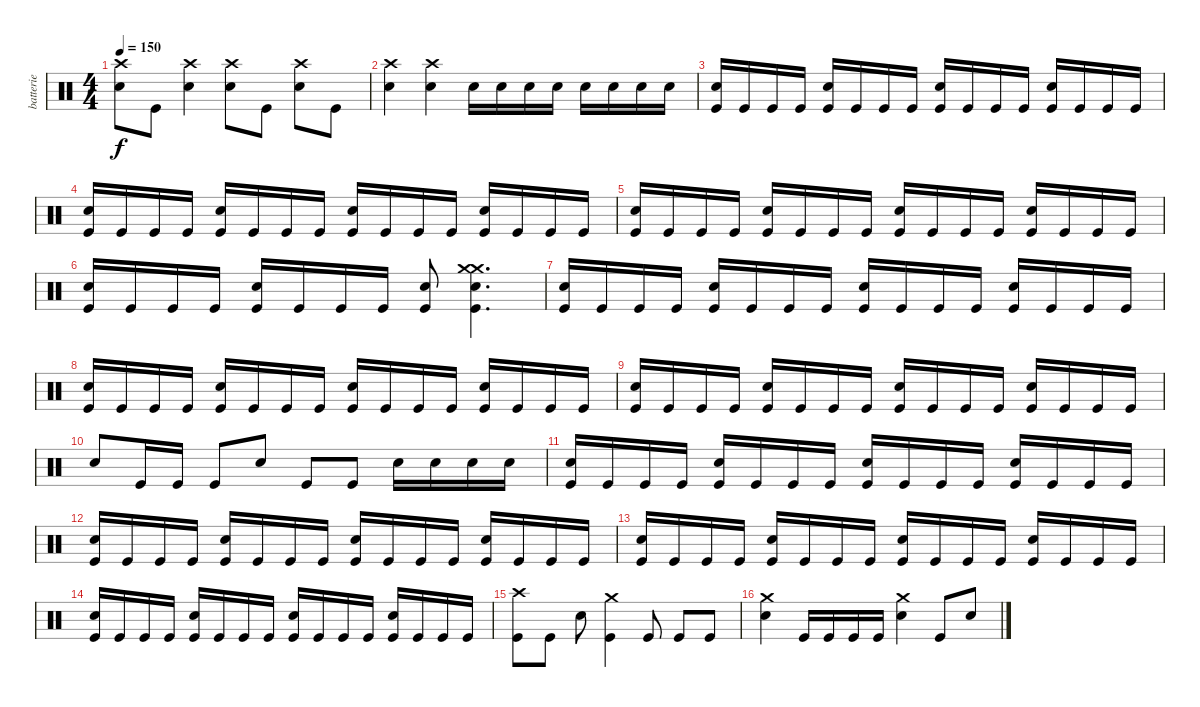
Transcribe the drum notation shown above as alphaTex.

\track ("batterie" "batterie") {instrument percussion}
\staff {score}
\articulation defaults
\ts (4 4)
\tempo 150
\clef neutral
\ks c
("Crash high (hit)" "Snare (hit) 2").8{dy f} "Kick (hit)".8 ("Crash high (hit)" "Snare (hit) 2").4 ("Crash high (hit)" "Snare (hit) 2").8 "Kick (hit)".8 ("Crash high (hit)" "Snare (hit) 2").8 "Kick (hit)".8 |
("Crash high (hit)" "Snare (hit) 2").4 ("Crash high (hit)" "Snare (hit) 2").4 "Snare (hit) 2".16 "Snare (hit) 2".16 "Snare (hit) 2".16 "Snare (hit) 2".16 "Snare (hit) 2".16 "Snare (hit) 2".16 "Snare (hit) 2".16 "Snare (hit) 2".16 |
("Snare (hit) 2" "Kick (hit)").16 "Kick (hit)".16 "Kick (hit)".16 "Kick (hit)".16 ("Snare (hit) 2" "Kick (hit)").16 "Kick (hit)".16 "Kick (hit)".16 "Kick (hit)".16 ("Snare (hit) 2" "Kick (hit)").16 "Kick (hit)".16 "Kick (hit)".16 "Kick (hit)".16 ("Snare (hit) 2" "Kick (hit)").16 "Kick (hit)".16 "Kick (hit)".16 "Kick (hit)".16 |
("Snare (hit) 2" "Kick (hit)").16 "Kick (hit)".16 "Kick (hit)".16 "Kick (hit)".16 ("Snare (hit) 2" "Kick (hit)").16 "Kick (hit)".16 "Kick (hit)".16 "Kick (hit)".16 ("Snare (hit) 2" "Kick (hit)").16 "Kick (hit)".16 "Kick (hit)".16 "Kick (hit)".16 ("Snare (hit) 2" "Kick (hit)").16 "Kick (hit)".16 "Kick (hit)".16 "Kick (hit)".16 |
("Snare (hit) 2" "Kick (hit)").16 "Kick (hit)".16 "Kick (hit)".16 "Kick (hit)".16 ("Snare (hit) 2" "Kick (hit)").16 "Kick (hit)".16 "Kick (hit)".16 "Kick (hit)".16 ("Snare (hit) 2" "Kick (hit)").16 "Kick (hit)".16 "Kick (hit)".16 "Kick (hit)".16 ("Snare (hit) 2" "Kick (hit)").16 "Kick (hit)".16 "Kick (hit)".16 "Kick (hit)".16 |
("Snare (hit) 2" "Kick (hit)").16 "Kick (hit)".16 "Kick (hit)".16 "Kick (hit)".16 ("Snare (hit) 2" "Kick (hit)").16 "Kick (hit)".16 "Kick (hit)".16 "Kick (hit)".16 ("Snare (hit) 2" "Kick (hit)").8 ("Crash medium (hit)" "Crash medium (hit)" "Snare (hit) 2" "Kick (hit)").4{d} |
("Snare (hit) 2" "Kick (hit)").16 "Kick (hit)".16 "Kick (hit)".16 "Kick (hit)".16 ("Snare (hit) 2" "Kick (hit)").16 "Kick (hit)".16 "Kick (hit)".16 "Kick (hit)".16 ("Snare (hit) 2" "Kick (hit)").16 "Kick (hit)".16 "Kick (hit)".16 "Kick (hit)".16 ("Snare (hit) 2" "Kick (hit)").16 "Kick (hit)".16 "Kick (hit)".16 "Kick (hit)".16 |
("Snare (hit) 2" "Kick (hit)").16 "Kick (hit)".16 "Kick (hit)".16 "Kick (hit)".16 ("Snare (hit) 2" "Kick (hit)").16 "Kick (hit)".16 "Kick (hit)".16 "Kick (hit)".16 ("Snare (hit) 2" "Kick (hit)").16 "Kick (hit)".16 "Kick (hit)".16 "Kick (hit)".16 ("Snare (hit) 2" "Kick (hit)").16 "Kick (hit)".16 "Kick (hit)".16 "Kick (hit)".16 |
("Snare (hit) 2" "Kick (hit)").16 "Kick (hit)".16 "Kick (hit)".16 "Kick (hit)".16 ("Snare (hit) 2" "Kick (hit)").16 "Kick (hit)".16 "Kick (hit)".16 "Kick (hit)".16 ("Snare (hit) 2" "Kick (hit)").16 "Kick (hit)".16 "Kick (hit)".16 "Kick (hit)".16 ("Snare (hit) 2" "Kick (hit)").16 "Kick (hit)".16 "Kick (hit)".16 "Kick (hit)".16 |
"Snare (hit) 2".8 "Kick (hit)".16 "Kick (hit)".16 "Kick (hit)".8 "Snare (hit) 2".8 "Kick (hit)".8 "Kick (hit)".8 "Snare (hit) 2".16 "Snare (hit) 2".16 "Snare (hit) 2".16 "Snare (hit) 2".16 |
("Snare (hit) 2" "Kick (hit)").16 "Kick (hit)".16 "Kick (hit)".16 "Kick (hit)".16 ("Snare (hit) 2" "Kick (hit)").16 "Kick (hit)".16 "Kick (hit)".16 "Kick (hit)".16 ("Snare (hit) 2" "Kick (hit)").16 "Kick (hit)".16 "Kick (hit)".16 "Kick (hit)".16 ("Snare (hit) 2" "Kick (hit)").16 "Kick (hit)".16 "Kick (hit)".16 "Kick (hit)".16 |
("Snare (hit) 2" "Kick (hit)").16 "Kick (hit)".16 "Kick (hit)".16 "Kick (hit)".16 ("Snare (hit) 2" "Kick (hit)").16 "Kick (hit)".16 "Kick (hit)".16 "Kick (hit)".16 ("Snare (hit) 2" "Kick (hit)").16 "Kick (hit)".16 "Kick (hit)".16 "Kick (hit)".16 ("Snare (hit) 2" "Kick (hit)").16 "Kick (hit)".16 "Kick (hit)".16 "Kick (hit)".16 |
("Snare (hit) 2" "Kick (hit)").16 "Kick (hit)".16 "Kick (hit)".16 "Kick (hit)".16 ("Snare (hit) 2" "Kick (hit)").16 "Kick (hit)".16 "Kick (hit)".16 "Kick (hit)".16 ("Snare (hit) 2" "Kick (hit)").16 "Kick (hit)".16 "Kick (hit)".16 "Kick (hit)".16 ("Snare (hit) 2" "Kick (hit)").16 "Kick (hit)".16 "Kick (hit)".16 "Kick (hit)".16 |
("Snare (hit) 2" "Kick (hit)").16 "Kick (hit)".16 "Kick (hit)".16 "Kick (hit)".16 ("Snare (hit) 2" "Kick (hit)").16 "Kick (hit)".16 "Kick (hit)".16 "Kick (hit)".16 ("Snare (hit) 2" "Kick (hit)").16 "Kick (hit)".16 "Kick (hit)".16 "Kick (hit)".16 ("Snare (hit) 2" "Kick (hit)").16 "Kick (hit)".16 "Kick (hit)".16 "Kick (hit)".16 |
("Crash high (hit)" "Kick (hit)").8 "Kick (hit)".8 "Snare (hit) 2".8 ("Crash medium (hit)" "Kick (hit)").4 "Kick (hit)".8 "Kick (hit)".8 "Kick (hit)".8 |
("Crash medium (hit)" "Snare (hit) 2").4 "Kick (hit)".16 "Kick (hit)".16 "Kick (hit)".16 "Kick (hit)".16 ("Crash medium (hit)" "Snare (hit) 2").4 "Kick (hit)".8 "Snare (hit) 2".8
